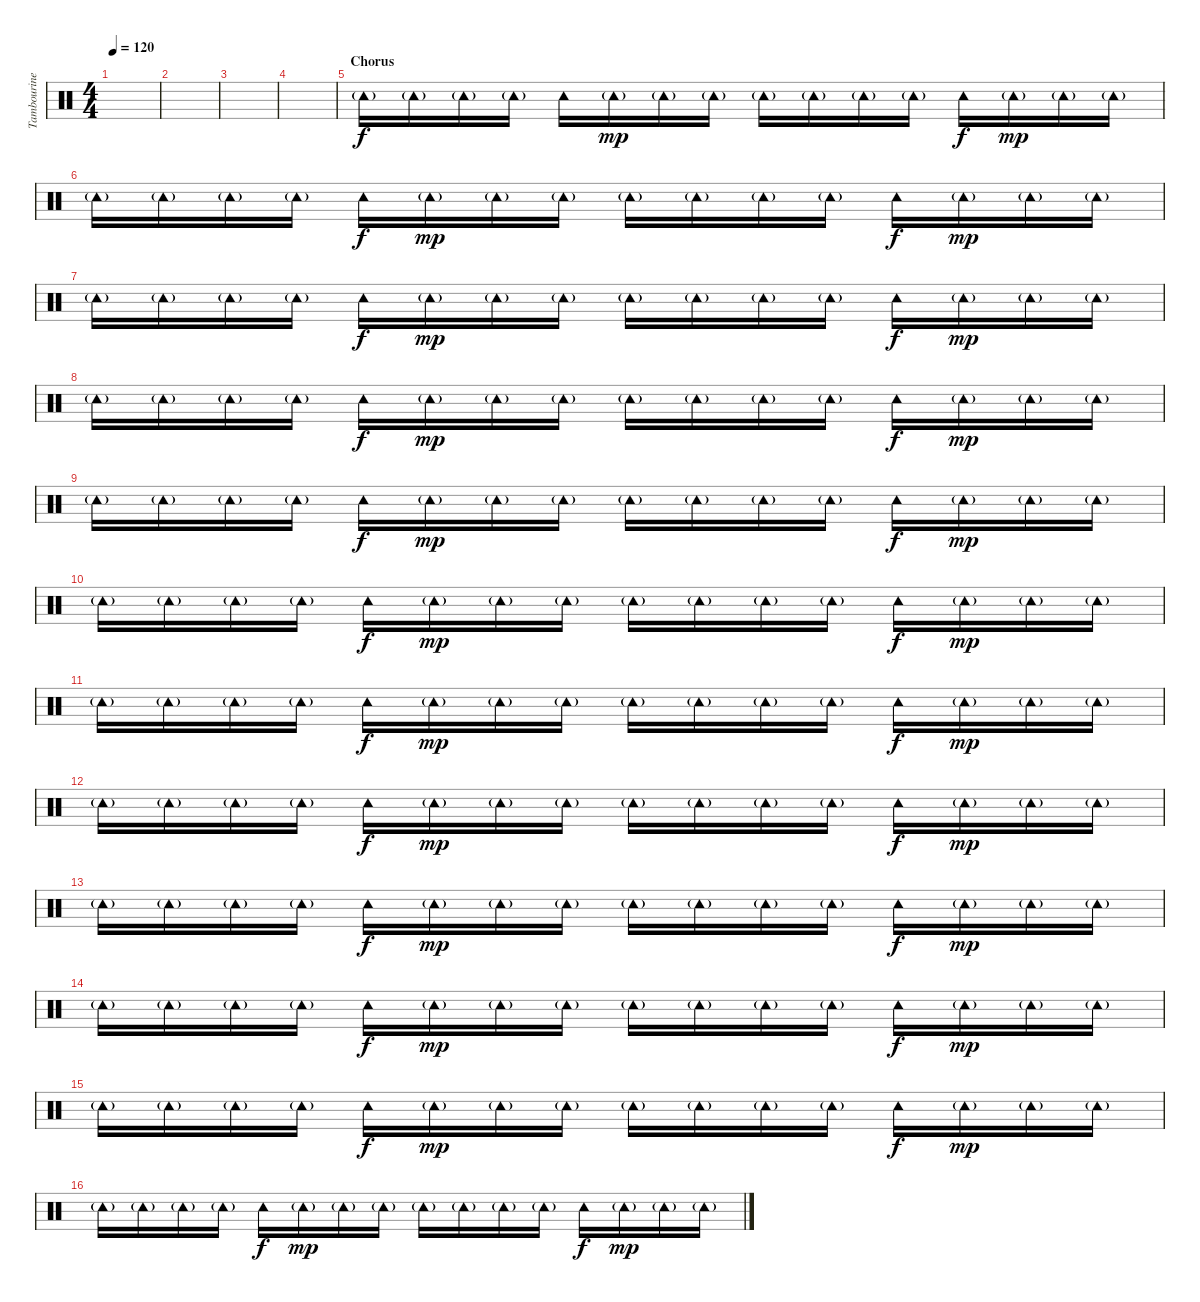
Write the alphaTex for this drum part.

\track ("Tambourine" "Tambourine") {instrument percussion}
\staff {score}
\articulation defaults
\ts (4 4)
\tempo 120
\clef neutral
\ks c
|
|
|
|
\section ("" "Chorus")
"Tambourine (hit)"{g}.16 "Tambourine (hit)"{g}.16 "Tambourine (hit)"{g}.16 "Tambourine (hit)"{g}.16 "Tambourine (hit)".16{dy f} "Tambourine (hit)"{g}.16{dy mp} "Tambourine (hit)"{g}.16 "Tambourine (hit)"{g}.16 "Tambourine (hit)"{g}.16 "Tambourine (hit)"{g}.16 "Tambourine (hit)"{g}.16 "Tambourine (hit)"{g}.16 "Tambourine (hit)".16{dy f} "Tambourine (hit)"{g}.16{dy mp} "Tambourine (hit)"{g}.16 "Tambourine (hit)"{g}.16 |
"Tambourine (hit)"{g}.16 "Tambourine (hit)"{g}.16 "Tambourine (hit)"{g}.16 "Tambourine (hit)"{g}.16 "Tambourine (hit)".16{dy f} "Tambourine (hit)"{g}.16{dy mp} "Tambourine (hit)"{g}.16 "Tambourine (hit)"{g}.16 "Tambourine (hit)"{g}.16 "Tambourine (hit)"{g}.16 "Tambourine (hit)"{g}.16 "Tambourine (hit)"{g}.16 "Tambourine (hit)".16{dy f} "Tambourine (hit)"{g}.16{dy mp} "Tambourine (hit)"{g}.16 "Tambourine (hit)"{g}.16 |
"Tambourine (hit)"{g}.16 "Tambourine (hit)"{g}.16 "Tambourine (hit)"{g}.16 "Tambourine (hit)"{g}.16 "Tambourine (hit)".16{dy f} "Tambourine (hit)"{g}.16{dy mp} "Tambourine (hit)"{g}.16 "Tambourine (hit)"{g}.16 "Tambourine (hit)"{g}.16 "Tambourine (hit)"{g}.16 "Tambourine (hit)"{g}.16 "Tambourine (hit)"{g}.16 "Tambourine (hit)".16{dy f} "Tambourine (hit)"{g}.16{dy mp} "Tambourine (hit)"{g}.16 "Tambourine (hit)"{g}.16 |
"Tambourine (hit)"{g}.16 "Tambourine (hit)"{g}.16 "Tambourine (hit)"{g}.16 "Tambourine (hit)"{g}.16 "Tambourine (hit)".16{dy f} "Tambourine (hit)"{g}.16{dy mp} "Tambourine (hit)"{g}.16 "Tambourine (hit)"{g}.16 "Tambourine (hit)"{g}.16 "Tambourine (hit)"{g}.16 "Tambourine (hit)"{g}.16 "Tambourine (hit)"{g}.16 "Tambourine (hit)".16{dy f} "Tambourine (hit)"{g}.16{dy mp} "Tambourine (hit)"{g}.16 "Tambourine (hit)"{g}.16 |
"Tambourine (hit)"{g}.16 "Tambourine (hit)"{g}.16 "Tambourine (hit)"{g}.16 "Tambourine (hit)"{g}.16 "Tambourine (hit)".16{dy f} "Tambourine (hit)"{g}.16{dy mp} "Tambourine (hit)"{g}.16 "Tambourine (hit)"{g}.16 "Tambourine (hit)"{g}.16 "Tambourine (hit)"{g}.16 "Tambourine (hit)"{g}.16 "Tambourine (hit)"{g}.16 "Tambourine (hit)".16{dy f} "Tambourine (hit)"{g}.16{dy mp} "Tambourine (hit)"{g}.16 "Tambourine (hit)"{g}.16 |
"Tambourine (hit)"{g}.16 "Tambourine (hit)"{g}.16 "Tambourine (hit)"{g}.16 "Tambourine (hit)"{g}.16 "Tambourine (hit)".16{dy f} "Tambourine (hit)"{g}.16{dy mp} "Tambourine (hit)"{g}.16 "Tambourine (hit)"{g}.16 "Tambourine (hit)"{g}.16 "Tambourine (hit)"{g}.16 "Tambourine (hit)"{g}.16 "Tambourine (hit)"{g}.16 "Tambourine (hit)".16{dy f} "Tambourine (hit)"{g}.16{dy mp} "Tambourine (hit)"{g}.16 "Tambourine (hit)"{g}.16 |
"Tambourine (hit)"{g}.16 "Tambourine (hit)"{g}.16 "Tambourine (hit)"{g}.16 "Tambourine (hit)"{g}.16 "Tambourine (hit)".16{dy f} "Tambourine (hit)"{g}.16{dy mp} "Tambourine (hit)"{g}.16 "Tambourine (hit)"{g}.16 "Tambourine (hit)"{g}.16 "Tambourine (hit)"{g}.16 "Tambourine (hit)"{g}.16 "Tambourine (hit)"{g}.16 "Tambourine (hit)".16{dy f} "Tambourine (hit)"{g}.16{dy mp} "Tambourine (hit)"{g}.16 "Tambourine (hit)"{g}.16 |
"Tambourine (hit)"{g}.16 "Tambourine (hit)"{g}.16 "Tambourine (hit)"{g}.16 "Tambourine (hit)"{g}.16 "Tambourine (hit)".16{dy f} "Tambourine (hit)"{g}.16{dy mp} "Tambourine (hit)"{g}.16 "Tambourine (hit)"{g}.16 "Tambourine (hit)"{g}.16 "Tambourine (hit)"{g}.16 "Tambourine (hit)"{g}.16 "Tambourine (hit)"{g}.16 "Tambourine (hit)".16{dy f} "Tambourine (hit)"{g}.16{dy mp} "Tambourine (hit)"{g}.16 "Tambourine (hit)"{g}.16 |
"Tambourine (hit)"{g}.16 "Tambourine (hit)"{g}.16 "Tambourine (hit)"{g}.16 "Tambourine (hit)"{g}.16 "Tambourine (hit)".16{dy f} "Tambourine (hit)"{g}.16{dy mp} "Tambourine (hit)"{g}.16 "Tambourine (hit)"{g}.16 "Tambourine (hit)"{g}.16 "Tambourine (hit)"{g}.16 "Tambourine (hit)"{g}.16 "Tambourine (hit)"{g}.16 "Tambourine (hit)".16{dy f} "Tambourine (hit)"{g}.16{dy mp} "Tambourine (hit)"{g}.16 "Tambourine (hit)"{g}.16 |
"Tambourine (hit)"{g}.16 "Tambourine (hit)"{g}.16 "Tambourine (hit)"{g}.16 "Tambourine (hit)"{g}.16 "Tambourine (hit)".16{dy f} "Tambourine (hit)"{g}.16{dy mp} "Tambourine (hit)"{g}.16 "Tambourine (hit)"{g}.16 "Tambourine (hit)"{g}.16 "Tambourine (hit)"{g}.16 "Tambourine (hit)"{g}.16 "Tambourine (hit)"{g}.16 "Tambourine (hit)".16{dy f} "Tambourine (hit)"{g}.16{dy mp} "Tambourine (hit)"{g}.16 "Tambourine (hit)"{g}.16 |
"Tambourine (hit)"{g}.16 "Tambourine (hit)"{g}.16 "Tambourine (hit)"{g}.16 "Tambourine (hit)"{g}.16 "Tambourine (hit)".16{dy f} "Tambourine (hit)"{g}.16{dy mp} "Tambourine (hit)"{g}.16 "Tambourine (hit)"{g}.16 "Tambourine (hit)"{g}.16 "Tambourine (hit)"{g}.16 "Tambourine (hit)"{g}.16 "Tambourine (hit)"{g}.16 "Tambourine (hit)".16{dy f} "Tambourine (hit)"{g}.16{dy mp} "Tambourine (hit)"{g}.16 "Tambourine (hit)"{g}.16 |
"Tambourine (hit)"{g}.16 "Tambourine (hit)"{g}.16 "Tambourine (hit)"{g}.16 "Tambourine (hit)"{g}.16 "Tambourine (hit)".16{dy f} "Tambourine (hit)"{g}.16{dy mp} "Tambourine (hit)"{g}.16 "Tambourine (hit)"{g}.16 "Tambourine (hit)"{g}.16 "Tambourine (hit)"{g}.16 "Tambourine (hit)"{g}.16 "Tambourine (hit)"{g}.16 "Tambourine (hit)".16{dy f} "Tambourine (hit)"{g}.16{dy mp} "Tambourine (hit)"{g}.16 "Tambourine (hit)"{g}.16
